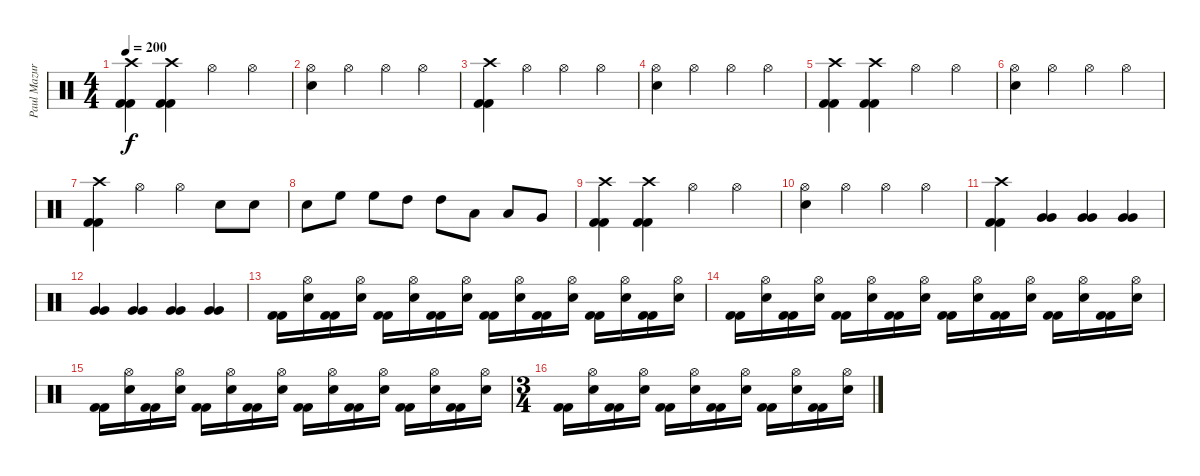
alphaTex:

\track ("Paul Mazurkiewicz" "Paul Mazur") {instrument percussion}
\staff {score}
\articulation defaults
\ts (4 4)
\tempo 200
\clef neutral
\ks c
("Crash high (hit)" "Kick (hit) 2" "Kick (hit) 2").4{dy f} ("Crash high (hit)" "Kick (hit) 2" "Kick (hit) 2").4 "Hi-Hat (open)".4 "Hi-Hat (open)".4 |
("Hi-Hat (open)" "Electric Snare (hit)").4 "Hi-Hat (open)".4 "Hi-Hat (open)".4 "Hi-Hat (open)".4 |
("Crash high (hit)" "Kick (hit) 2" "Kick (hit) 2").4 "Hi-Hat (open)".4 "Hi-Hat (open)".4 "Hi-Hat (open)".4 |
("Hi-Hat (open)" "Electric Snare (hit)").4 "Hi-Hat (open)".4 "Hi-Hat (open)".4 "Hi-Hat (open)".4 |
("Crash high (hit)" "Kick (hit) 2" "Kick (hit) 2").4 ("Crash high (hit)" "Kick (hit) 2" "Kick (hit) 2").4 "Hi-Hat (open)".4 "Hi-Hat (open)".4 |
("Hi-Hat (open)" "Electric Snare (hit)").4 "Hi-Hat (open)".4 "Hi-Hat (open)".4 "Hi-Hat (open)".4 |
("Crash high (hit)" "Kick (hit) 2" "Kick (hit) 2").4 "Hi-Hat (open)".4 "Hi-Hat (open)".4 "Electric Snare (hit)".8 "Electric Snare (hit)".8 |
"Electric Snare (hit)".8 "High Floor Tom (hit)".8 "High Floor Tom (hit)".8 "High Tom (hit)".8 "High Tom (hit)".8 "Low Tom (hit)".8 "Low Tom (hit)".8 "Very Low Tom (hit)".8 |
("Crash high (hit)" "Kick (hit) 2" "Kick (hit) 2").4 ("Crash high (hit)" "Kick (hit) 2" "Kick (hit) 2").4 "Hi-Hat (open)".4 "Hi-Hat (open)".4 |
("Hi-Hat (open)" "Electric Snare (hit)").4 "Hi-Hat (open)".4 "Hi-Hat (open)".4 "Hi-Hat (open)".4 |
("Crash high (hit)" "Kick (hit) 2" "Kick (hit) 2").4 ("Very Low Tom (hit)" "Very Low Tom (hit)").4 ("Very Low Tom (hit)" "Very Low Tom (hit)").4 ("Very Low Tom (hit)" "Very Low Tom (hit)").4 |
("Very Low Tom (hit)" "Very Low Tom (hit)").4 ("Very Low Tom (hit)" "Very Low Tom (hit)").4 ("Very Low Tom (hit)" "Very Low Tom (hit)").4 ("Very Low Tom (hit)" "Very Low Tom (hit)").4 |
("Kick (hit) 2" "Kick (hit) 2").16 ("Hi-Hat (open)" "Electric Snare (hit)").16 ("Kick (hit) 2" "Kick (hit) 2").16 ("Hi-Hat (open)" "Electric Snare (hit)").16 ("Kick (hit) 2" "Kick (hit) 2").16 ("Hi-Hat (open)" "Electric Snare (hit)").16 ("Kick (hit) 2" "Kick (hit) 2").16 ("Hi-Hat (open)" "Electric Snare (hit)").16 ("Kick (hit) 2" "Kick (hit) 2").16 ("Hi-Hat (open)" "Electric Snare (hit)").16 ("Kick (hit) 2" "Kick (hit) 2").16 ("Hi-Hat (open)" "Electric Snare (hit)").16 ("Kick (hit) 2" "Kick (hit) 2").16 ("Hi-Hat (open)" "Electric Snare (hit)").16 ("Kick (hit) 2" "Kick (hit) 2").16 ("Hi-Hat (open)" "Electric Snare (hit)").16 |
("Kick (hit) 2" "Kick (hit) 2").16 ("Hi-Hat (open)" "Electric Snare (hit)").16 ("Kick (hit) 2" "Kick (hit) 2").16 ("Hi-Hat (open)" "Electric Snare (hit)").16 ("Kick (hit) 2" "Kick (hit) 2").16 ("Hi-Hat (open)" "Electric Snare (hit)").16 ("Kick (hit) 2" "Kick (hit) 2").16 ("Hi-Hat (open)" "Electric Snare (hit)").16 ("Kick (hit) 2" "Kick (hit) 2").16 ("Hi-Hat (open)" "Electric Snare (hit)").16 ("Kick (hit) 2" "Kick (hit) 2").16 ("Hi-Hat (open)" "Electric Snare (hit)").16 ("Kick (hit) 2" "Kick (hit) 2").16 ("Hi-Hat (open)" "Electric Snare (hit)").16 ("Kick (hit) 2" "Kick (hit) 2").16 ("Hi-Hat (open)" "Electric Snare (hit)").16 |
("Kick (hit) 2" "Kick (hit) 2").16 ("Hi-Hat (open)" "Electric Snare (hit)").16 ("Kick (hit) 2" "Kick (hit) 2").16 ("Hi-Hat (open)" "Electric Snare (hit)").16 ("Kick (hit) 2" "Kick (hit) 2").16 ("Hi-Hat (open)" "Electric Snare (hit)").16 ("Kick (hit) 2" "Kick (hit) 2").16 ("Hi-Hat (open)" "Electric Snare (hit)").16 ("Kick (hit) 2" "Kick (hit) 2").16 ("Hi-Hat (open)" "Electric Snare (hit)").16 ("Kick (hit) 2" "Kick (hit) 2").16 ("Hi-Hat (open)" "Electric Snare (hit)").16 ("Kick (hit) 2" "Kick (hit) 2").16 ("Hi-Hat (open)" "Electric Snare (hit)").16 ("Kick (hit) 2" "Kick (hit) 2").16 ("Hi-Hat (open)" "Electric Snare (hit)").16 |
\ts (3 4)
("Kick (hit) 2" "Kick (hit) 2").16 ("Hi-Hat (open)" "Electric Snare (hit)").16 ("Kick (hit) 2" "Kick (hit) 2").16 ("Hi-Hat (open)" "Electric Snare (hit)").16 ("Kick (hit) 2" "Kick (hit) 2").16 ("Hi-Hat (open)" "Electric Snare (hit)").16 ("Kick (hit) 2" "Kick (hit) 2").16 ("Hi-Hat (open)" "Electric Snare (hit)").16 ("Kick (hit) 2" "Kick (hit) 2").16 ("Hi-Hat (open)" "Electric Snare (hit)").16 ("Kick (hit) 2" "Kick (hit) 2").16 ("Hi-Hat (open)" "Electric Snare (hit)").16
